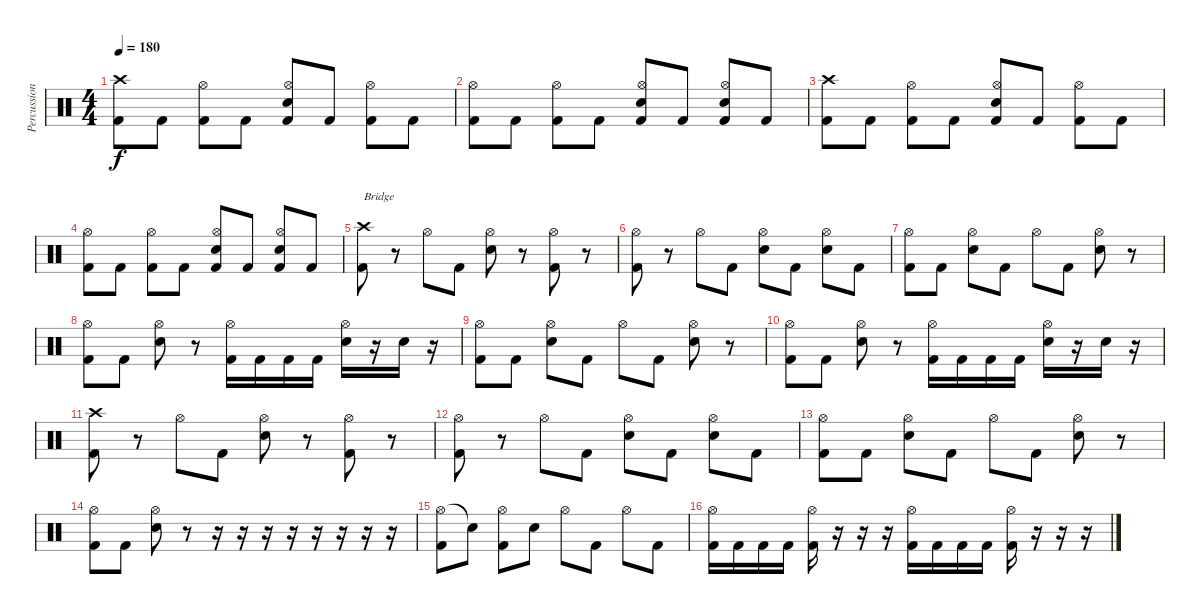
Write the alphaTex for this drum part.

\track ("Percussion" "Percussion") {instrument percussion}
\staff {score}
\articulation defaults
\ts (4 4)
\tempo 180
\clef neutral
\ks c
("Crash high (hit)" "Kick (hit) 2").8{dy f} "Kick (hit) 2".8 ("Hi-Hat (open)" "Kick (hit) 2").8 "Kick (hit) 2".8 ("Hi-Hat (open)" "Electric Snare (hit)" "Kick (hit) 2").8 "Kick (hit) 2".8 ("Hi-Hat (open)" "Kick (hit) 2").8 "Kick (hit) 2".8 |
("Hi-Hat (open)" "Kick (hit) 2").8 "Kick (hit) 2".8 ("Hi-Hat (open)" "Kick (hit) 2").8 "Kick (hit) 2".8 ("Hi-Hat (open)" "Electric Snare (hit)" "Kick (hit) 2").8 "Kick (hit) 2".8 ("Hi-Hat (open)" "Electric Snare (hit)" "Kick (hit) 2").8 "Kick (hit) 2".8 |
("Crash high (hit)" "Kick (hit) 2").8 "Kick (hit) 2".8 ("Hi-Hat (open)" "Kick (hit) 2").8 "Kick (hit) 2".8 ("Hi-Hat (open)" "Electric Snare (hit)" "Kick (hit) 2").8 "Kick (hit) 2".8 ("Hi-Hat (open)" "Kick (hit) 2").8 "Kick (hit) 2".8 |
("Hi-Hat (open)" "Kick (hit) 2").8 "Kick (hit) 2".8 ("Hi-Hat (open)" "Kick (hit) 2").8 "Kick (hit) 2".8 ("Hi-Hat (open)" "Electric Snare (hit)" "Kick (hit) 2").8 "Kick (hit) 2".8 ("Hi-Hat (open)" "Electric Snare (hit)" "Kick (hit) 2").8 "Kick (hit) 2".8 |
("Crash high (hit)" "Kick (hit) 2").8{txt "Bridge"} r.8 "Hi-Hat (open)".8 "Kick (hit) 2".8 ("Hi-Hat (open)" "Electric Snare (hit)").8 r.8 ("Hi-Hat (open)" "Kick (hit) 2").8 r.8 |
("Hi-Hat (open)" "Kick (hit) 2").8 r.8 "Hi-Hat (open)".8 "Kick (hit) 2".8 ("Hi-Hat (open)" "Electric Snare (hit)").8 "Kick (hit) 2".8 ("Hi-Hat (open)" "Electric Snare (hit)").8 "Kick (hit) 2".8 |
("Hi-Hat (open)" "Kick (hit) 2").8 "Kick (hit) 2".8 ("Hi-Hat (open)" "Electric Snare (hit)").8 "Kick (hit) 2".8 "Hi-Hat (open)".8 "Kick (hit) 2".8 ("Hi-Hat (open)" "Electric Snare (hit)").8 r.8 |
("Hi-Hat (open)" "Kick (hit) 2").8 "Kick (hit) 2".8 ("Hi-Hat (open)" "Electric Snare (hit)").8 r.8 ("Hi-Hat (open)" "Kick (hit) 2").16 "Kick (hit) 2".16 "Kick (hit) 2".16 "Kick (hit) 2".16 ("Hi-Hat (open)" "Electric Snare (hit)").16 r.16 "Electric Snare (hit)".16 r.16 |
("Hi-Hat (open)" "Kick (hit) 2").8 "Kick (hit) 2".8 ("Hi-Hat (open)" "Electric Snare (hit)").8 "Kick (hit) 2".8 "Hi-Hat (open)".8 "Kick (hit) 2".8 ("Hi-Hat (open)" "Electric Snare (hit)").8 r.8 |
("Hi-Hat (open)" "Kick (hit) 2").8 "Kick (hit) 2".8 ("Hi-Hat (open)" "Electric Snare (hit)").8 r.8 ("Hi-Hat (open)" "Kick (hit) 2").16 "Kick (hit) 2".16 "Kick (hit) 2".16 "Kick (hit) 2".16 ("Hi-Hat (open)" "Electric Snare (hit)").16 r.16 "Electric Snare (hit)".16 r.16 |
("Crash high (hit)" "Kick (hit) 2").8 r.8 "Hi-Hat (open)".8 "Kick (hit) 2".8 ("Hi-Hat (open)" "Electric Snare (hit)").8 r.8 ("Hi-Hat (open)" "Kick (hit) 2").8 r.8 |
("Hi-Hat (open)" "Kick (hit) 2").8 r.8 "Hi-Hat (open)".8 "Kick (hit) 2".8 ("Hi-Hat (open)" "Electric Snare (hit)").8 "Kick (hit) 2".8 ("Hi-Hat (open)" "Electric Snare (hit)").8 "Kick (hit) 2".8 |
("Hi-Hat (open)" "Kick (hit) 2").8 "Kick (hit) 2".8 ("Hi-Hat (open)" "Electric Snare (hit)").8 "Kick (hit) 2".8 "Hi-Hat (open)".8 "Kick (hit) 2".8 ("Hi-Hat (open)" "Electric Snare (hit)").8 r.8 |
("Hi-Hat (open)" "Kick (hit) 2").8 "Kick (hit) 2".8 ("Hi-Hat (open)" "Electric Snare (hit)").8 r.8 r.16 r.16 r.16 r.16 r.16 r.16 r.16 r.16 |
("Hi-Hat (open)" "Kick (hit) 2").8 "Snare (hit)"{t}.8 ("Hi-Hat (open)" "Kick (hit) 2").8 "Electric Snare (hit)".8 "Hi-Hat (open)".8 "Kick (hit) 2".8 "Hi-Hat (open)".8 "Kick (hit) 2".8 |
("Hi-Hat (open)" "Kick (hit) 2").16 "Kick (hit) 2".16 "Kick (hit) 2".16 "Kick (hit) 2".16 ("Hi-Hat (open)" "Kick (hit) 2").16 r.16 r.16 r.16 ("Hi-Hat (open)" "Kick (hit) 2").16 "Kick (hit) 2".16 "Kick (hit) 2".16 "Kick (hit) 2".16 ("Hi-Hat (open)" "Kick (hit) 2").16 r.16 r.16 r.16
